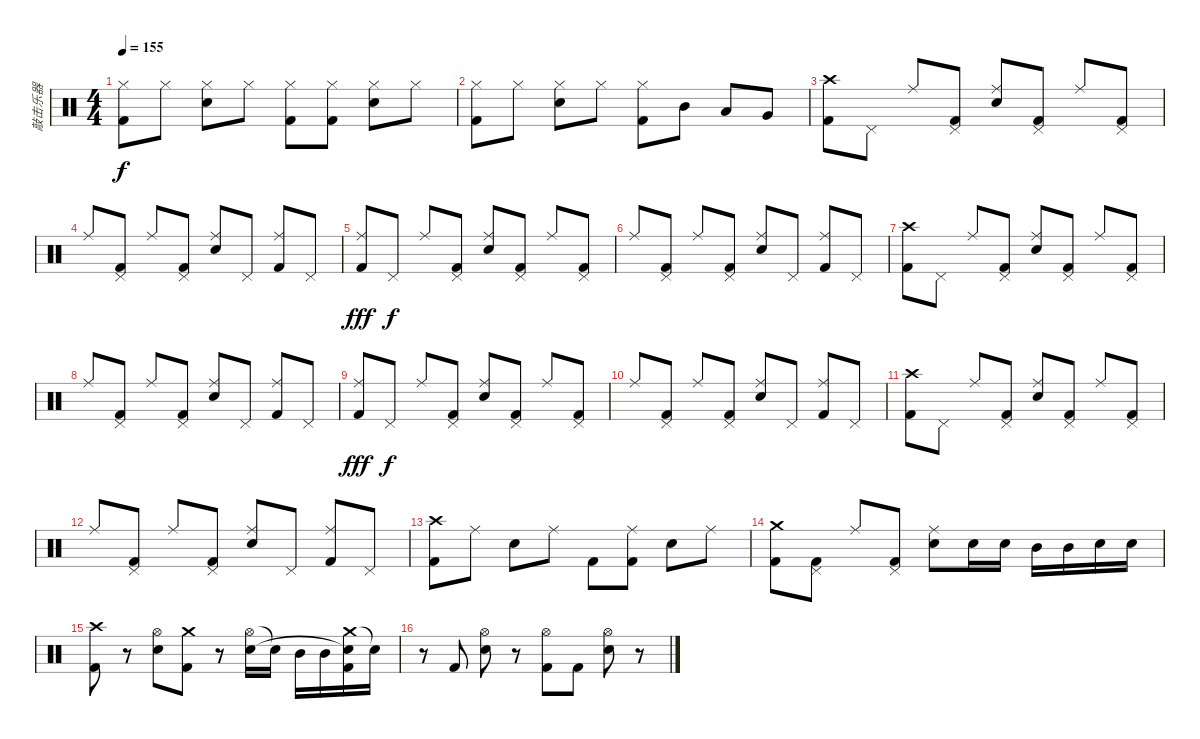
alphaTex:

\track ("敲击乐器" "敲击乐器") {instrument percussion}
\staff {score}
\articulation defaults
\ts (4 4)
\tempo 155
\clef neutral
\ks c
("Hi-Hat (closed)" "Kick (hit) 2").8{dy f} "Hi-Hat (closed)".8 ("Hi-Hat (closed)" "Snare (hit) 2").8 "Hi-Hat (closed)".8 ("Hi-Hat (closed)" "Kick (hit) 2").8 ("Hi-Hat (closed)" "Kick (hit) 2").8 ("Hi-Hat (closed)" "Snare (hit) 2").8 "Hi-Hat (closed)".8 |
("Hi-Hat (closed)" "Kick (hit) 2").8 "Hi-Hat (closed)".8 ("Hi-Hat (closed)" "Snare (hit) 2").8 "Hi-Hat (closed)".8 ("Hi-Hat (closed)" "Kick (hit) 2").8 "Mid Tom (hit)".8 "Low Tom (hit)".8 "Very Low Tom (hit)".8 |
("Crash high (hit)" "Kick (hit) 2").8 "Pedal Hi-Hat (hit)".8 "Ride (middle)".8 ("Pedal Hi-Hat (hit)" "Kick (hit) 2").8 ("Ride (middle)" "Snare (hit) 2").8 ("Pedal Hi-Hat (hit)" "Kick (hit) 2").8 "Ride (middle)".8 ("Pedal Hi-Hat (hit)" "Kick (hit) 2").8 |
"Ride (middle)".8 ("Pedal Hi-Hat (hit)" "Kick (hit) 2").8 "Ride (middle)".8 ("Pedal Hi-Hat (hit)" "Kick (hit) 2").8 ("Ride (middle)" "Snare (hit) 2").8 "Pedal Hi-Hat (hit)".8 ("Ride (middle)" "Kick (hit) 2").8 "Pedal Hi-Hat (hit)".8 |
("Ride (middle)" "Kick (hit) 2").8{dy fff} "Pedal Hi-Hat (hit)".8{dy f} "Ride (middle)".8 ("Pedal Hi-Hat (hit)" "Kick (hit) 2").8 ("Ride (middle)" "Snare (hit) 2").8 ("Pedal Hi-Hat (hit)" "Kick (hit) 2").8 "Ride (middle)".8 ("Pedal Hi-Hat (hit)" "Kick (hit) 2").8 |
"Ride (middle)".8 ("Pedal Hi-Hat (hit)" "Kick (hit) 2").8 "Ride (middle)".8 ("Pedal Hi-Hat (hit)" "Kick (hit) 2").8 ("Ride (middle)" "Snare (hit) 2").8 "Pedal Hi-Hat (hit)".8 ("Ride (middle)" "Kick (hit) 2").8 "Pedal Hi-Hat (hit)".8 |
("Crash high (hit)" "Kick (hit) 2").8 "Pedal Hi-Hat (hit)".8 "Ride (middle)".8 ("Pedal Hi-Hat (hit)" "Kick (hit) 2").8 ("Ride (middle)" "Snare (hit) 2").8 ("Pedal Hi-Hat (hit)" "Kick (hit) 2").8 "Ride (middle)".8 ("Pedal Hi-Hat (hit)" "Kick (hit) 2").8 |
"Ride (middle)".8 ("Pedal Hi-Hat (hit)" "Kick (hit) 2").8 "Ride (middle)".8 ("Pedal Hi-Hat (hit)" "Kick (hit) 2").8 ("Ride (middle)" "Snare (hit) 2").8 "Pedal Hi-Hat (hit)".8 ("Ride (middle)" "Kick (hit) 2").8 "Pedal Hi-Hat (hit)".8 |
("Ride (middle)" "Kick (hit) 2").8{dy fff} "Pedal Hi-Hat (hit)".8{dy f} "Ride (middle)".8 ("Pedal Hi-Hat (hit)" "Kick (hit) 2").8 ("Ride (middle)" "Snare (hit) 2").8 ("Pedal Hi-Hat (hit)" "Kick (hit) 2").8 "Ride (middle)".8 ("Pedal Hi-Hat (hit)" "Kick (hit) 2").8 |
"Ride (middle)".8 ("Pedal Hi-Hat (hit)" "Kick (hit) 2").8 "Ride (middle)".8 ("Pedal Hi-Hat (hit)" "Kick (hit) 2").8 ("Ride (middle)" "Snare (hit) 2").8 "Pedal Hi-Hat (hit)".8 ("Ride (middle)" "Kick (hit) 2").8 "Pedal Hi-Hat (hit)".8 |
("Crash high (hit)" "Kick (hit) 2").8 "Pedal Hi-Hat (hit)".8 "Ride (middle)".8 ("Pedal Hi-Hat (hit)" "Kick (hit) 2").8 ("Ride (middle)" "Snare (hit) 2").8 ("Pedal Hi-Hat (hit)" "Kick (hit) 2").8 "Ride (middle)".8 ("Pedal Hi-Hat (hit)" "Kick (hit) 2").8 |
"Ride (middle)".8 ("Pedal Hi-Hat (hit)" "Kick (hit) 2").8 "Ride (middle)".8 ("Pedal Hi-Hat (hit)" "Kick (hit) 2").8 ("Ride (middle)" "Snare (hit) 2").8 "Pedal Hi-Hat (hit)".8 ("Ride (middle)" "Kick (hit) 2").8 "Pedal Hi-Hat (hit)".8 |
("Crash high (hit)" "Kick (hit) 2").8 "Ride (middle)".8 "Snare (hit) 2".8 "Ride (middle)".8 "Kick (hit) 2".8 ("Ride (middle)" "Kick (hit) 2").8 "Snare (hit) 2".8 "Ride (middle)".8 |
("Crash medium (hit)" "Kick (hit) 2").8 ("Pedal Hi-Hat (hit)" "Kick (hit) 2").8 "Ride (middle)".8 ("Pedal Hi-Hat (hit)" "Kick (hit) 2").8 ("Ride (middle)" "Snare (hit) 2").8 "Snare (hit) 2".16 "Snare (hit) 2".16 "Mid Tom (hit)".16 "Mid Tom (hit)".16 "Snare (hit) 2".16 "Snare (hit) 2".16 |
("Crash high (hit)" "Kick (hit) 2").8 r.8 ("Hi-Hat (open)" "Snare (hit) 2").8 ("Crash medium (hit)" "Kick (hit) 2").8 r.8 ("Hi-Hat (open)" "Snare (hit) 2").16 "Snare (hit) 2"{t}.16 "Mid Tom (hit)".16 "Mid Tom (hit)".16 ("Crash medium (hit)" "Snare (hit) 2"{t} "Kick (hit) 2").16 "Snare (hit) 2"{t}.16 |
r.8 "Kick (hit) 2".8 ("Hi-Hat (open)" "Snare (hit) 2").8 r.8 ("Hi-Hat (open)" "Kick (hit) 2").8 "Kick (hit) 2".8 ("Hi-Hat (open)" "Snare (hit) 2").8 r.8
